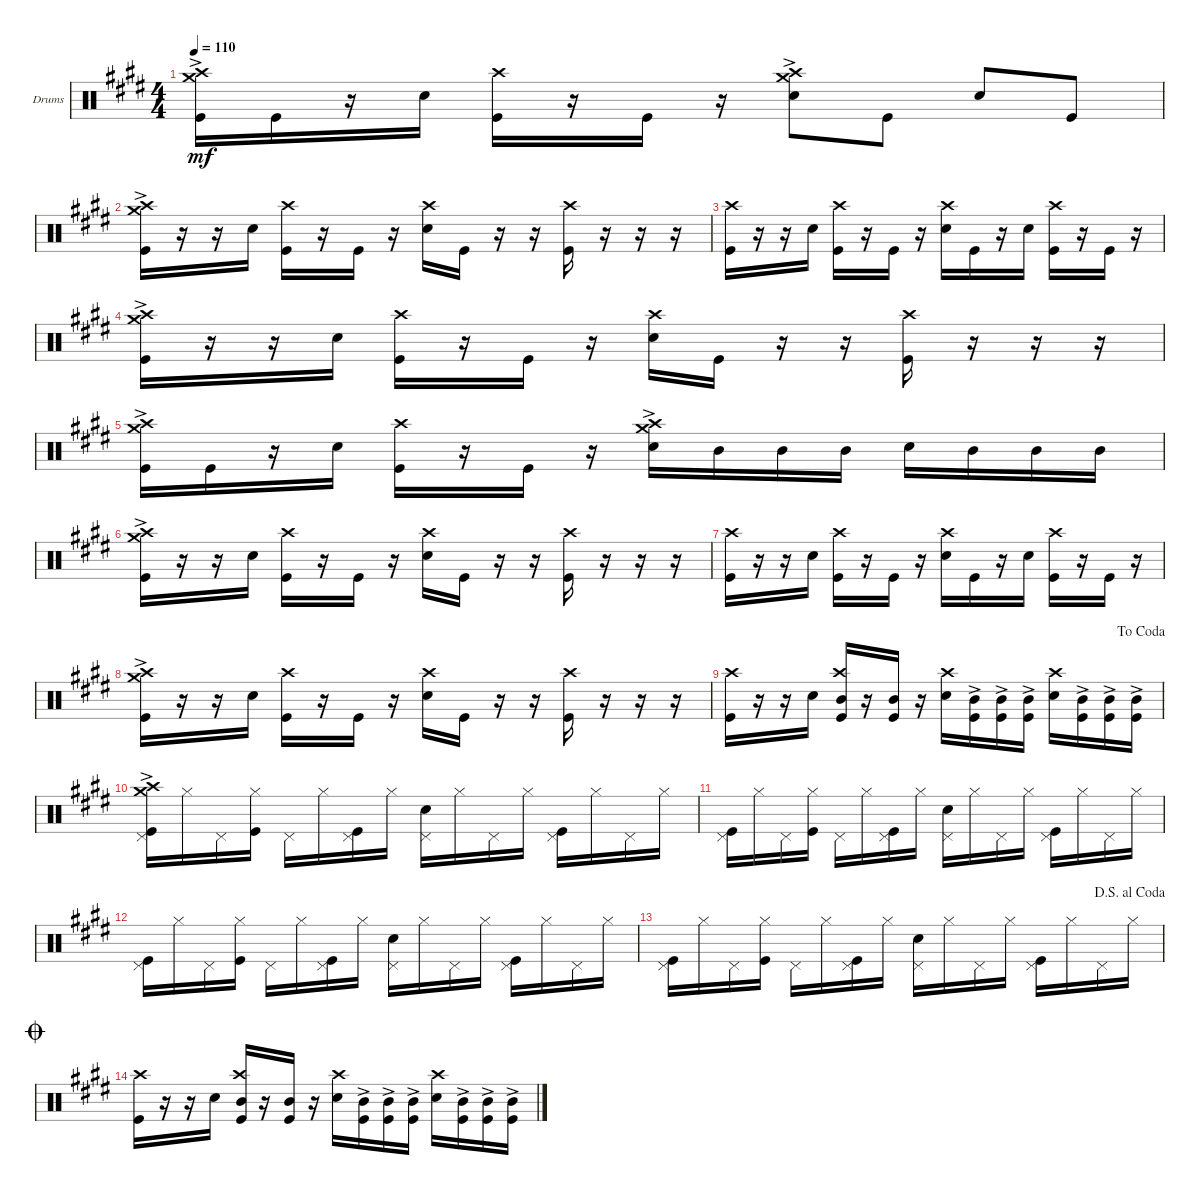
\defaultSystemsLayout 4
\bracketExtendMode groupsimilarinstruments
\firstSystemTrackNameOrientation horizontal
\otherSystemsTrackNameOrientation horizontal
\track ("Drumkit" "Drums") {instrument percussion}
\staff {score}
\articulation defaults
\ts (4 4)
\tempo 110
\clef neutral
\ks c#minor
("Kick (hit)" "Crash medium (hit)"{ac} "Crash high (hit)"{ac}).16{dy mf} "Kick (hit)".16 r.16 "Snare (hit) 2".16 ("Kick (hit)" "Crash high (hit)").16 r.16 "Kick (hit)".16 r.16 ("Snare (hit) 2" "Crash medium (hit)"{ac} "Crash high (hit)"{ac}).8 "Kick (hit)".8 "Snare (hit) 2".8 "Kick (hit)".8 |
("Kick (hit)" "Crash high (hit)"{ac} "Crash medium (hit)"{ac}).16 r.16 r.16 "Snare (hit) 2".16 ("Kick (hit)" "Crash high (hit)").16 r.16 "Kick (hit)".16 r.16 ("Snare (hit) 2" "Crash high (hit)").16 "Kick (hit)".16 r.16 r.16 ("Kick (hit)" "Crash high (hit)").16 r.16 r.16 r.16 |
("Kick (hit)" "Crash high (hit)").16 r.16 r.16 "Snare (hit) 2".16 ("Kick (hit)" "Crash high (hit)").16 r.16 "Kick (hit)".16 r.16 ("Snare (hit) 2" "Crash high (hit)").16 "Kick (hit)".16 r.16 "Snare (hit) 2".16 ("Kick (hit)" "Crash high (hit)").16 r.16 "Kick (hit)".16 r.16 |
("Kick (hit)" "Crash high (hit)"{ac} "Crash medium (hit)"{ac}).16 r.16 r.16 "Snare (hit) 2".16 ("Kick (hit)" "Crash high (hit)").16 r.16 "Kick (hit)".16 r.16 ("Snare (hit) 2" "Crash high (hit)").16 "Kick (hit)".16 r.16 r.16 ("Kick (hit)" "Crash high (hit)").16 r.16 r.16 r.16 |
("Kick (hit)" "Crash medium (hit)"{ac} "Crash high (hit)"{ac}).16 "Kick (hit)".16 r.16 "Snare (hit) 2".16 ("Kick (hit)" "Crash high (hit)").16 r.16 "Kick (hit)".16 r.16 ("Snare (hit) 2" "Crash medium (hit)"{ac} "Crash high (hit)"{ac}).16 "Mid Tom (hit)".16 "Mid Tom (hit)".16 "Mid Tom (hit)".16 "Snare (hit) 2".16 "Mid Tom (hit)".16 "Mid Tom (hit)".16 "Mid Tom (hit)".16 |
("Kick (hit)" "Crash high (hit)"{ac} "Crash medium (hit)"{ac}).16 r.16 r.16 "Snare (hit) 2".16 ("Kick (hit)" "Crash high (hit)").16 r.16 "Kick (hit)".16 r.16 ("Snare (hit) 2" "Crash high (hit)").16 "Kick (hit)".16 r.16 r.16 ("Kick (hit)" "Crash high (hit)").16 r.16 r.16 r.16 |
("Kick (hit)" "Crash high (hit)").16 r.16 r.16 "Snare (hit) 2".16 ("Kick (hit)" "Crash high (hit)").16 r.16 "Kick (hit)".16 r.16 ("Snare (hit) 2" "Crash high (hit)").16 "Kick (hit)".16 r.16 "Snare (hit) 2".16 ("Kick (hit)" "Crash high (hit)").16 r.16 "Kick (hit)".16 r.16 |
("Kick (hit)" "Crash high (hit)"{ac} "Crash medium (hit)"{ac}).16 r.16 r.16 "Snare (hit) 2".16 ("Kick (hit)" "Crash high (hit)").16 r.16 "Kick (hit)".16 r.16 ("Snare (hit) 2" "Crash high (hit)").16 "Kick (hit)".16 r.16 r.16 ("Kick (hit)" "Crash high (hit)").16 r.16 r.16 r.16 |
\jump dacoda
("Kick (hit)" "Crash high (hit)").16 r.16 r.16 "Snare (hit) 2".16 ("Kick (hit)" "Mid Tom (hit)" "Crash high (hit)").16 r.16 ("Kick (hit)" "Mid Tom (hit)").16 r.16 ("Snare (hit) 2" "Crash high (hit)").16 ("Mid Tom (hit)"{ac} "Kick (hit)"{ac}).16 ("Mid Tom (hit)"{ac} "Kick (hit)"{ac}).16 ("Mid Tom (hit)"{ac} "Kick (hit)"{ac}).16 ("Snare (hit) 2" "Crash high (hit)").16 ("Mid Tom (hit)"{ac} "Kick (hit)"{ac}).16 ("Mid Tom (hit)"{ac} "Kick (hit)"{ac}).16 ("Mid Tom (hit)"{ac} "Kick (hit)"{ac}).16 |
("Kick (hit)" "Pedal Hi-Hat (hit)" "Crash high (hit)"{ac} "Crash medium (hit)"{ac}).16 "Hi-Hat (closed)".16 "Pedal Hi-Hat (hit)".16 ("Kick (hit)" "Hi-Hat (closed)").16 "Pedal Hi-Hat (hit)".16 "Hi-Hat (closed)".16 ("Kick (hit)" "Pedal Hi-Hat (hit)").16 "Hi-Hat (closed)".16 ("Snare (hit) 2" "Pedal Hi-Hat (hit)").16 "Hi-Hat (closed)".16 "Pedal Hi-Hat (hit)".16 "Hi-Hat (closed)".16 ("Kick (hit)" "Pedal Hi-Hat (hit)").16 "Hi-Hat (closed)".16 "Pedal Hi-Hat (hit)".16 "Hi-Hat (closed)".16 |
("Kick (hit)" "Pedal Hi-Hat (hit)").16 "Hi-Hat (closed)".16 "Pedal Hi-Hat (hit)".16 ("Kick (hit)" "Hi-Hat (closed)").16 "Pedal Hi-Hat (hit)".16 "Hi-Hat (closed)".16 ("Kick (hit)" "Pedal Hi-Hat (hit)").16 "Hi-Hat (closed)".16 ("Snare (hit) 2" "Pedal Hi-Hat (hit)").16 "Hi-Hat (closed)".16 "Pedal Hi-Hat (hit)".16 "Hi-Hat (closed)".16 ("Kick (hit)" "Pedal Hi-Hat (hit)").16 "Hi-Hat (closed)".16 "Pedal Hi-Hat (hit)".16 "Hi-Hat (closed)".16 |
("Kick (hit)" "Pedal Hi-Hat (hit)").16 "Hi-Hat (closed)".16 "Pedal Hi-Hat (hit)".16 ("Kick (hit)" "Hi-Hat (closed)").16 "Pedal Hi-Hat (hit)".16 "Hi-Hat (closed)".16 ("Kick (hit)" "Pedal Hi-Hat (hit)").16 "Hi-Hat (closed)".16 ("Snare (hit) 2" "Pedal Hi-Hat (hit)").16 "Hi-Hat (closed)".16 "Pedal Hi-Hat (hit)".16 "Hi-Hat (closed)".16 ("Kick (hit)" "Pedal Hi-Hat (hit)").16 "Hi-Hat (closed)".16 "Pedal Hi-Hat (hit)".16 "Hi-Hat (closed)".16 |
\jump dalsegnoalcoda
("Kick (hit)" "Pedal Hi-Hat (hit)").16 "Hi-Hat (closed)".16 "Pedal Hi-Hat (hit)".16 ("Kick (hit)" "Hi-Hat (closed)").16 "Pedal Hi-Hat (hit)".16 "Hi-Hat (closed)".16 ("Kick (hit)" "Pedal Hi-Hat (hit)").16 "Hi-Hat (closed)".16 ("Snare (hit) 2" "Pedal Hi-Hat (hit)").16 "Hi-Hat (closed)".16 "Pedal Hi-Hat (hit)".16 "Hi-Hat (closed)".16 ("Kick (hit)" "Pedal Hi-Hat (hit)").16 "Hi-Hat (closed)".16 "Pedal Hi-Hat (hit)".16 "Hi-Hat (closed)".16 |
\jump coda
("Kick (hit)" "Crash high (hit)").16 r.16 r.16 "Snare (hit) 2".16 ("Kick (hit)" "Mid Tom (hit)" "Crash high (hit)").16 r.16 ("Kick (hit)" "Mid Tom (hit)").16 r.16 ("Snare (hit) 2" "Crash high (hit)").16 ("Mid Tom (hit)"{ac} "Kick (hit)"{ac}).16 ("Mid Tom (hit)"{ac} "Kick (hit)"{ac}).16 ("Mid Tom (hit)"{ac} "Kick (hit)"{ac}).16 ("Snare (hit) 2" "Crash high (hit)").16 ("Mid Tom (hit)"{ac} "Kick (hit)"{ac}).16 ("Mid Tom (hit)"{ac} "Kick (hit)"{ac}).16 ("Mid Tom (hit)"{ac} "Kick (hit)"{ac}).16
